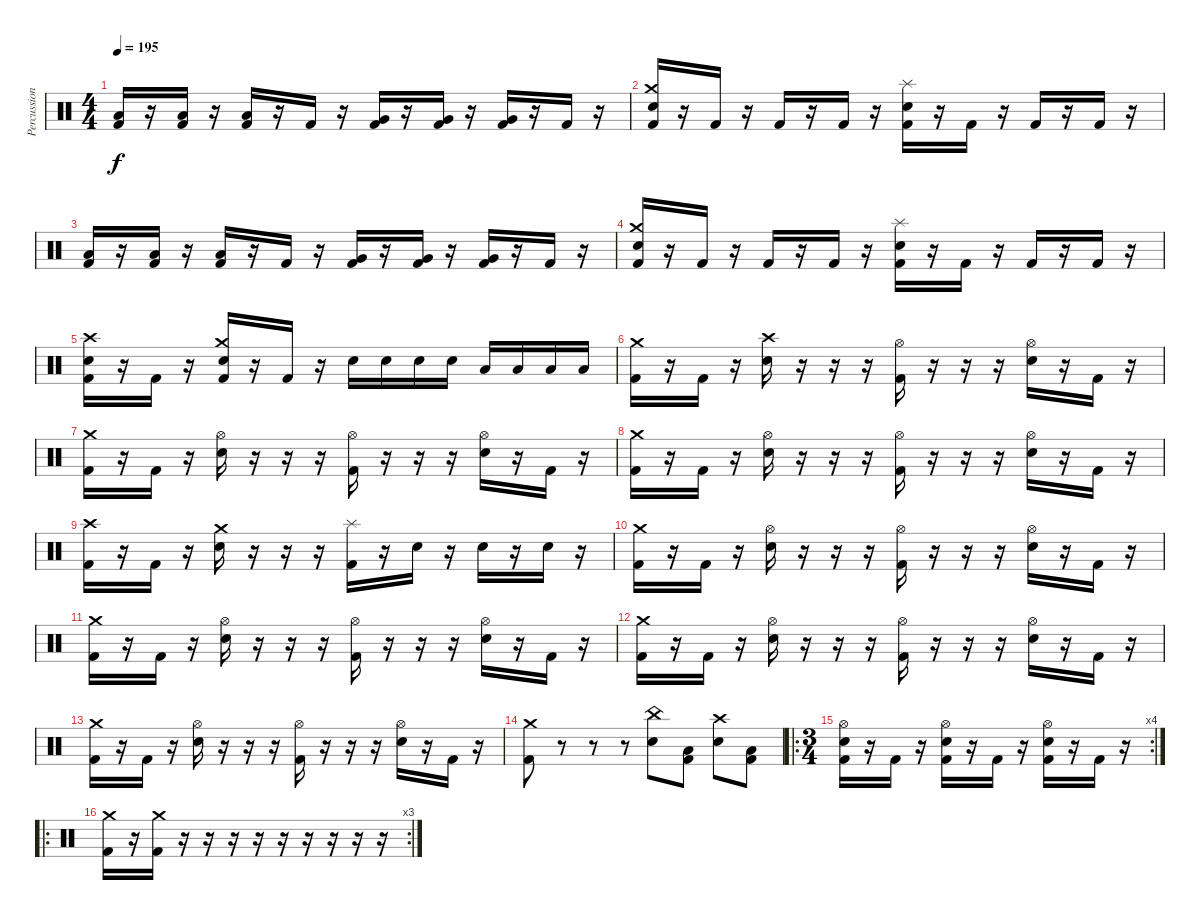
\track ("Percussion" "Percussion") {instrument percussion}
\staff {score}
\articulation defaults
\ts (4 4)
\tempo 195
\clef neutral
\ks c
("Low Tom (hit)" "Kick (hit) 2").16{dy f} r.16 ("Low Tom (hit)" "Kick (hit) 2").16 r.16 ("Low Tom (hit)" "Kick (hit) 2").16 r.16 "Kick (hit) 2".16 r.16 ("Very Low Tom (hit)" "Kick (hit) 2").16 r.16 ("Very Low Tom (hit)" "Kick (hit) 2").16 r.16 ("Very Low Tom (hit)" "Kick (hit) 2").16 r.16 "Kick (hit) 2".16 r.16 |
("Crash medium (hit)" "Electric Snare (hit)" "Kick (hit) 2").16 r.16 "Kick (hit) 2".16 r.16 "Kick (hit) 2".16 r.16 "Kick (hit) 2".16 r.16 ("Splash (hit)" "Electric Snare (hit)" "Kick (hit) 2").16 r.16 "Kick (hit) 2".16 r.16 "Kick (hit) 2".16 r.16 "Kick (hit) 2".16 r.16 |
("Low Tom (hit)" "Kick (hit) 2").16 r.16 ("Low Tom (hit)" "Kick (hit) 2").16 r.16 ("Low Tom (hit)" "Kick (hit) 2").16 r.16 "Kick (hit) 2".16 r.16 ("Very Low Tom (hit)" "Kick (hit) 2").16 r.16 ("Very Low Tom (hit)" "Kick (hit) 2").16 r.16 ("Very Low Tom (hit)" "Kick (hit) 2").16 r.16 "Kick (hit) 2".16 r.16 |
("Crash medium (hit)" "Electric Snare (hit)" "Kick (hit) 2").16 r.16 "Kick (hit) 2".16 r.16 "Kick (hit) 2".16 r.16 "Kick (hit) 2".16 r.16 ("Splash (hit)" "Electric Snare (hit)" "Kick (hit) 2").16 r.16 "Kick (hit) 2".16 r.16 "Kick (hit) 2".16 r.16 "Kick (hit) 2".16 r.16 |
("Crash high (hit)" "Electric Snare (hit)" "Kick (hit) 2").16 r.16 "Kick (hit) 2".16 r.16 ("Crash medium (hit)" "Electric Snare (hit)" "Kick (hit) 2").16 r.16 "Kick (hit) 2".16 r.16 "Electric Snare (hit)".16 "Electric Snare (hit)".16 "Electric Snare (hit)".16 "Electric Snare (hit)".16 "Low Tom (hit)".16 "Low Tom (hit)".16 "Low Floor Tom (hit)".16 "Low Floor Tom (hit)".16 |
("Crash medium (hit)" "Kick (hit) 2").16 r.16 "Kick (hit) 2".16 r.16 ("Crash high (hit)" "Electric Snare (hit)").16 r.16 r.16 r.16 ("Hi-Hat (open)" "Kick (hit) 2").16 r.16 r.16 r.16 ("Hi-Hat (open)" "Electric Snare (hit)").16 r.16 "Kick (hit) 2".16 r.16 |
("Crash medium (hit)" "Kick (hit) 2").16 r.16 "Kick (hit) 2".16 r.16 ("Hi-Hat (open)" "Electric Snare (hit)").16 r.16 r.16 r.16 ("Hi-Hat (open)" "Kick (hit) 2").16 r.16 r.16 r.16 ("Hi-Hat (open)" "Electric Snare (hit)").16 r.16 "Kick (hit) 2".16 r.16 |
("Crash medium (hit)" "Kick (hit) 2").16 r.16 "Kick (hit) 2".16 r.16 ("Hi-Hat (open)" "Electric Snare (hit)").16 r.16 r.16 r.16 ("Hi-Hat (open)" "Kick (hit) 2").16 r.16 r.16 r.16 ("Hi-Hat (open)" "Electric Snare (hit)").16 r.16 "Kick (hit) 2".16 r.16 |
("Crash high (hit)" "Kick (hit) 2").16 r.16 "Kick (hit) 2".16 r.16 ("Crash medium (hit)" "Electric Snare (hit)").16 r.16 r.16 r.16 ("Splash (hit)" "Kick (hit) 2").16 r.16 "Electric Snare (hit)".16 r.16 "Electric Snare (hit)".16 r.16 "Electric Snare (hit)".16 r.16 |
("Crash medium (hit)" "Kick (hit) 2").16 r.16 "Kick (hit) 2".16 r.16 ("Hi-Hat (open)" "Electric Snare (hit)").16 r.16 r.16 r.16 ("Hi-Hat (open)" "Kick (hit) 2").16 r.16 r.16 r.16 ("Hi-Hat (open)" "Electric Snare (hit)").16 r.16 "Kick (hit) 2".16 r.16 |
("Crash medium (hit)" "Kick (hit) 2").16 r.16 "Kick (hit) 2".16 r.16 ("Hi-Hat (open)" "Electric Snare (hit)").16 r.16 r.16 r.16 ("Hi-Hat (open)" "Kick (hit) 2").16 r.16 r.16 r.16 ("Hi-Hat (open)" "Electric Snare (hit)").16 r.16 "Kick (hit) 2".16 r.16 |
("Crash medium (hit)" "Kick (hit) 2").16 r.16 "Kick (hit) 2".16 r.16 ("Hi-Hat (open)" "Electric Snare (hit)").16 r.16 r.16 r.16 ("Hi-Hat (open)" "Kick (hit) 2").16 r.16 r.16 r.16 ("Hi-Hat (open)" "Electric Snare (hit)").16 r.16 "Kick (hit) 2".16 r.16 |
("Crash medium (hit)" "Kick (hit) 2").16 r.16 "Kick (hit) 2".16 r.16 ("Hi-Hat (open)" "Electric Snare (hit)").16 r.16 r.16 r.16 ("Hi-Hat (open)" "Kick (hit) 2").16 r.16 r.16 r.16 ("Hi-Hat (open)" "Electric Snare (hit)").16 r.16 "Kick (hit) 2".16 r.16 |
("Crash medium (hit)" "Kick (hit) 2").8 r.8 r.8 r.8 ("China (hit)" "Electric Snare (hit)").8 ("Low Floor Tom (hit)" "Kick (hit) 2").8 ("Crash high (hit)" "Electric Snare (hit)").8 ("Low Floor Tom (hit)" "Kick (hit) 2").8 |
\ro
\rc 4
\ts (3 4)
("Hi-Hat (open)" "Electric Snare (hit)" "Kick (hit) 2").16 r.16 "Kick (hit) 2".16 r.16 ("Hi-Hat (open)" "Electric Snare (hit)" "Kick (hit) 2").16 r.16 "Kick (hit) 2".16 r.16 ("Hi-Hat (open)" "Electric Snare (hit)" "Kick (hit) 2").16 r.16 "Kick (hit) 2".16 r.16 |
\ro
\rc 3
("Crash medium (hit)" "Kick (hit) 2").16 r.16 ("Crash medium (hit)" "Kick (hit) 2").16 r.16 r.16 r.16 r.16 r.16 r.16 r.16 r.16 r.16
